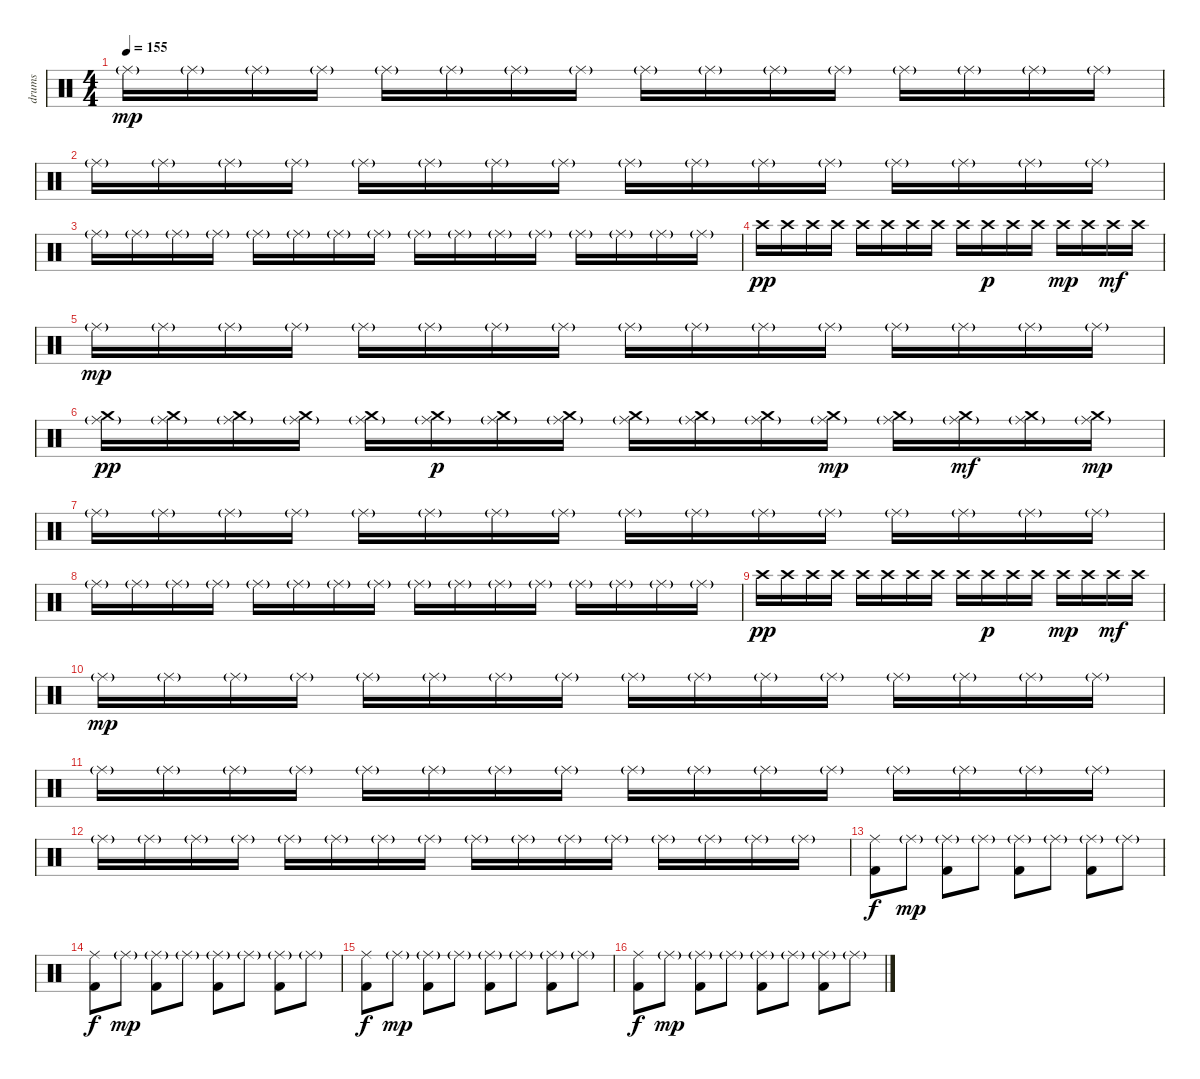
\track ("drums" "drums") {instrument percussion}
\staff {score}
\articulation defaults
\ts (4 4)
\tempo 155
\clef neutral
\ks c "Ride (middle)"{g}.16{dy mp} "Ride (middle)"{g}.16 "Ride (middle)"{g}.16 "Ride (middle)"{g}.16 "Ride (middle)"{g}.16 "Ride (middle)"{g}.16 "Ride (middle)"{g}.16 "Ride (middle)"{g}.16 "Ride (middle)"{g}.16 "Ride (middle)"{g}.16 "Ride (middle)"{g}.16 "Ride (middle)"{g}.16 "Ride (middle)"{g}.16 "Ride (middle)"{g}.16 "Ride (middle)"{g}.16 "Ride (middle)"{g}.16
|
"Ride (middle)"{g}.16 "Ride (middle)"{g}.16 "Ride (middle)"{g}.16 "Ride (middle)"{g}.16 "Ride (middle)"{g}.16 "Ride (middle)"{g}.16 "Ride (middle)"{g}.16 "Ride (middle)"{g}.16 "Ride (middle)"{g}.16 "Ride (middle)"{g}.16 "Ride (middle)"{g}.16 "Ride (middle)"{g}.16 "Ride (middle)"{g}.16 "Ride (middle)"{g}.16 "Ride (middle)"{g}.16 "Ride (middle)"{g}.16 |
"Ride (middle)"{g}.16 "Ride (middle)"{g}.16 "Ride (middle)"{g}.16 "Ride (middle)"{g}.16 "Ride (middle)"{g}.16 "Ride (middle)"{g}.16 "Ride (middle)"{g}.16 "Ride (middle)"{g}.16 "Ride (middle)"{g}.16 "Ride (middle)"{g}.16 "Ride (middle)"{g}.16 "Ride (middle)"{g}.16 "Ride (middle)"{g}.16 "Ride (middle)"{g}.16 "Ride (middle)"{g}.16 "Ride (middle)"{g}.16 |
"Crash high (hit)".16{dy pp} "Crash high (hit)".16 "Crash high (hit)".16 "Crash high (hit)".16 "Crash high (hit)".16 "Crash high (hit)".16 "Crash high (hit)".16 "Crash high (hit)".16 "Crash high (hit)".16 "Crash high (hit)".16{dy p} "Crash high (hit)".16 "Crash high (hit)".16 "Crash high (hit)".16{dy mp} "Crash high (hit)".16 "Crash high (hit)".16{dy mf} "Crash high (hit)".16 |
"Ride (middle)"{g}.16{dy mp} "Ride (middle)"{g}.16 "Ride (middle)"{g}.16 "Ride (middle)"{g}.16 "Ride (middle)"{g}.16 "Ride (middle)"{g}.16 "Ride (middle)"{g}.16 "Ride (middle)"{g}.16 "Ride (middle)"{g}.16 "Ride (middle)"{g}.16 "Ride (middle)"{g}.16 "Ride (middle)"{g}.16 "Ride (middle)"{g}.16 "Ride (middle)"{g}.16 "Ride (middle)"{g}.16 "Ride (middle)"{g}.16 |
("Ride (middle)"{g} "Crash medium (hit)").16{dy pp} ("Ride (middle)"{g} "Crash medium (hit)").16 ("Ride (middle)"{g} "Crash medium (hit)").16 ("Ride (middle)"{g} "Crash medium (hit)").16 ("Ride (middle)"{g} "Crash medium (hit)").16 ("Ride (middle)"{g} "Crash medium (hit)").16{dy p} ("Ride (middle)"{g} "Crash medium (hit)").16 ("Ride (middle)"{g} "Crash medium (hit)").16 ("Ride (middle)"{g} "Crash medium (hit)").16 ("Ride (middle)"{g} "Crash medium (hit)").16 ("Ride (middle)"{g} "Crash medium (hit)").16 ("Ride (middle)"{g} "Crash medium (hit)").16{dy mp} ("Ride (middle)"{g} "Crash medium (hit)").16 ("Ride (middle)"{g} "Crash medium (hit)").16{dy mf} ("Ride (middle)"{g} "Crash medium (hit)").16 ("Ride (middle)"{g} "Crash medium (hit)").16{dy mp} |
"Ride (middle)"{g}.16 "Ride (middle)"{g}.16 "Ride (middle)"{g}.16 "Ride (middle)"{g}.16 "Ride (middle)"{g}.16 "Ride (middle)"{g}.16 "Ride (middle)"{g}.16 "Ride (middle)"{g}.16 "Ride (middle)"{g}.16 "Ride (middle)"{g}.16 "Ride (middle)"{g}.16 "Ride (middle)"{g}.16 "Ride (middle)"{g}.16 "Ride (middle)"{g}.16 "Ride (middle)"{g}.16 "Ride (middle)"{g}.16 |
"Ride (middle)"{g}.16 "Ride (middle)"{g}.16 "Ride (middle)"{g}.16 "Ride (middle)"{g}.16 "Ride (middle)"{g}.16 "Ride (middle)"{g}.16 "Ride (middle)"{g}.16 "Ride (middle)"{g}.16 "Ride (middle)"{g}.16 "Ride (middle)"{g}.16 "Ride (middle)"{g}.16 "Ride (middle)"{g}.16 "Ride (middle)"{g}.16 "Ride (middle)"{g}.16 "Ride (middle)"{g}.16 "Ride (middle)"{g}.16 |
"Crash high (hit)".16{dy pp} "Crash high (hit)".16 "Crash high (hit)".16 "Crash high (hit)".16 "Crash high (hit)".16 "Crash high (hit)".16 "Crash high (hit)".16 "Crash high (hit)".16 "Crash high (hit)".16 "Crash high (hit)".16{dy p} "Crash high (hit)".16 "Crash high (hit)".16 "Crash high (hit)".16{dy mp} "Crash high (hit)".16 "Crash high (hit)".16{dy mf} "Crash high (hit)".16 |
"Ride (middle)"{g}.16{dy mp} "Ride (middle)"{g}.16 "Ride (middle)"{g}.16 "Ride (middle)"{g}.16 "Ride (middle)"{g}.16 "Ride (middle)"{g}.16 "Ride (middle)"{g}.16 "Ride (middle)"{g}.16 "Ride (middle)"{g}.16 "Ride (middle)"{g}.16 "Ride (middle)"{g}.16 "Ride (middle)"{g}.16 "Ride (middle)"{g}.16 "Ride (middle)"{g}.16 "Ride (middle)"{g}.16 "Ride (middle)"{g}.16 |
"Ride (middle)"{g}.16 "Ride (middle)"{g}.16 "Ride (middle)"{g}.16 "Ride (middle)"{g}.16 "Ride (middle)"{g}.16 "Ride (middle)"{g}.16 "Ride (middle)"{g}.16 "Ride (middle)"{g}.16 "Ride (middle)"{g}.16 "Ride (middle)"{g}.16 "Ride (middle)"{g}.16 "Ride (middle)"{g}.16 "Ride (middle)"{g}.16 "Ride (middle)"{g}.16 "Ride (middle)"{g}.16 "Ride (middle)"{g}.16 |
"Ride (middle)"{g}.16 "Ride (middle)"{g}.16 "Ride (middle)"{g}.16 "Ride (middle)"{g}.16 "Ride (middle)"{g}.16 "Ride (middle)"{g}.16 "Ride (middle)"{g}.16 "Ride (middle)"{g}.16 "Ride (middle)"{g}.16 "Ride (middle)"{g}.16 "Ride (middle)"{g}.16 "Ride (middle)"{g}.16 "Ride (middle)"{g}.16 "Ride (middle)"{g}.16 "Ride (middle)"{g}.16 "Ride (middle)"{g}.16 |
("Ride (middle)" "Kick (hit) 2").8{dy f} "Ride (middle)"{g}.8{dy mp} ("Ride (middle)"{g} "Kick (hit) 2").8 "Ride (middle)"{g}.8 ("Ride (middle)"{g} "Kick (hit) 2").8 "Ride (middle)"{g}.8 ("Ride (middle)"{g} "Kick (hit) 2").8 "Ride (middle)"{g}.8 |
("Ride (middle)" "Kick (hit) 2").8{dy f} "Ride (middle)"{g}.8{dy mp} ("Ride (middle)"{g} "Kick (hit) 2").8 "Ride (middle)"{g}.8 ("Ride (middle)"{g} "Kick (hit) 2").8 "Ride (middle)"{g}.8 ("Ride (middle)"{g} "Kick (hit) 2").8 "Ride (middle)"{g}.8 |
("Ride (middle)" "Kick (hit) 2").8{dy f} "Ride (middle)"{g}.8{dy mp} ("Ride (middle)"{g} "Kick (hit) 2").8 "Ride (middle)"{g}.8 ("Ride (middle)"{g} "Kick (hit) 2").8 "Ride (middle)"{g}.8 ("Ride (middle)"{g} "Kick (hit) 2").8 "Ride (middle)"{g}.8 |
("Ride (middle)" "Kick (hit) 2").8{dy f} "Ride (middle)"{g}.8{dy mp} ("Ride (middle)"{g} "Kick (hit) 2").8 "Ride (middle)"{g}.8 ("Ride (middle)"{g} "Kick (hit) 2").8 "Ride (middle)"{g}.8 ("Ride (middle)"{g} "Kick (hit) 2").8 "Ride (middle)"{g}.8
